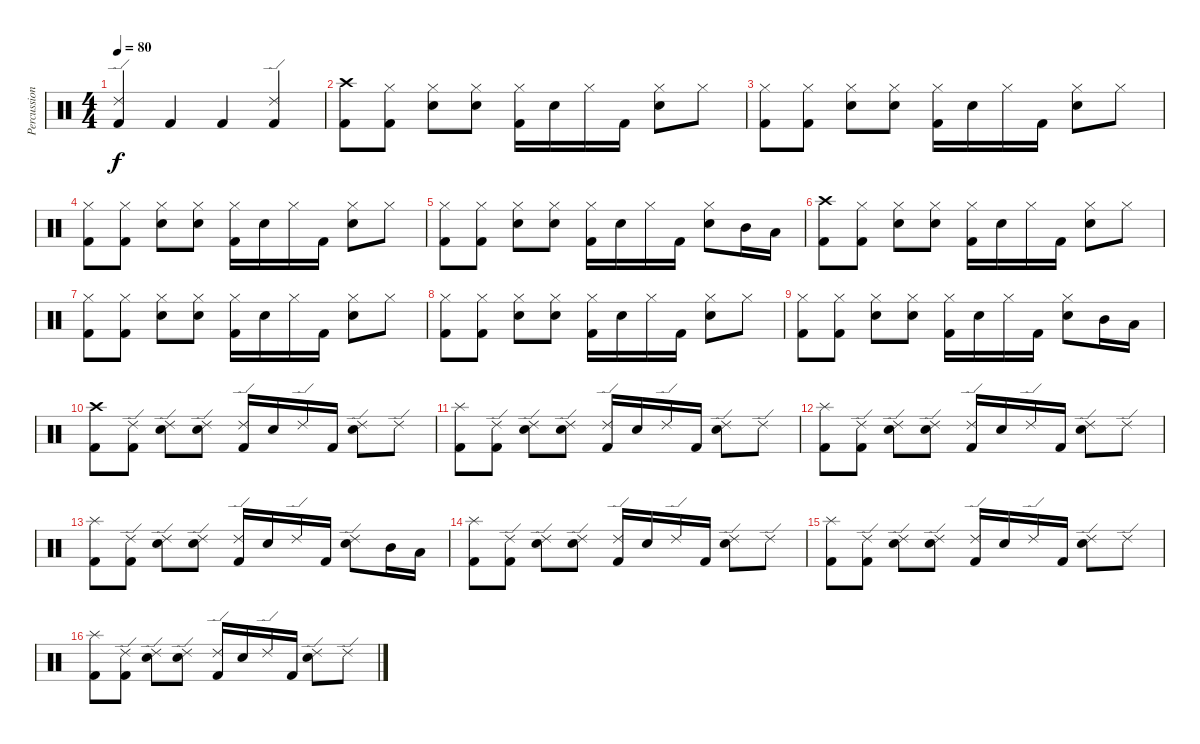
\track ("Percussion" "Percussion") {instrument percussion}
\staff {score}
\articulation defaults
\ts (4 4)
\tempo 80
\clef neutral
\ks c
("Kick (hit) 2" "Ride (edge) 2").4{dy f} "Kick (hit) 2".4 "Kick (hit) 2".4 ("Ride (edge) 2" "Kick (hit) 2").4 |
("Kick (hit) 2" "Crash high (hit)").8 ("Kick (hit) 2" "Hi-Hat (closed)").8 ("Electric Snare (hit)" "Hi-Hat (closed)").8 ("Electric Snare (hit)" "Hi-Hat (closed)").8 ("Kick (hit) 2" "Hi-Hat (closed)").16 "Electric Snare (hit)".16 "Hi-Hat (closed)".16 "Kick (hit) 2".16 ("Electric Snare (hit)" "Hi-Hat (closed)").8 "Hi-Hat (closed)".8 |
("Kick (hit) 2" "Hi-Hat (closed)").8 ("Kick (hit) 2" "Hi-Hat (closed)").8 ("Electric Snare (hit)" "Hi-Hat (closed)").8 ("Electric Snare (hit)" "Hi-Hat (closed)").8 ("Kick (hit) 2" "Hi-Hat (closed)").16 "Electric Snare (hit)".16 "Hi-Hat (closed)".16 "Kick (hit) 2".16 ("Electric Snare (hit)" "Hi-Hat (closed)").8 "Hi-Hat (closed)".8 |
("Kick (hit) 2" "Hi-Hat (closed)").8 ("Kick (hit) 2" "Hi-Hat (closed)").8 ("Electric Snare (hit)" "Hi-Hat (closed)").8 ("Electric Snare (hit)" "Hi-Hat (closed)").8 ("Kick (hit) 2" "Hi-Hat (closed)").16 "Electric Snare (hit)".16 "Hi-Hat (closed)".16 "Kick (hit) 2".16 ("Electric Snare (hit)" "Hi-Hat (closed)").8 "Hi-Hat (closed)".8 |
("Kick (hit) 2" "Hi-Hat (closed)").8 ("Kick (hit) 2" "Hi-Hat (closed)").8 ("Electric Snare (hit)" "Hi-Hat (closed)").8 ("Electric Snare (hit)" "Hi-Hat (closed)").8 ("Kick (hit) 2" "Hi-Hat (closed)").16 "Electric Snare (hit)".16 "Hi-Hat (closed)".16 "Kick (hit) 2".16 ("Electric Snare (hit)" "Hi-Hat (closed)").8 "Mid Tom (hit)".16 "Low Tom (hit)".16 |
("Kick (hit) 2" "Crash high (hit)").8 ("Kick (hit) 2" "Hi-Hat (closed)").8 ("Electric Snare (hit)" "Hi-Hat (closed)").8 ("Electric Snare (hit)" "Hi-Hat (closed)").8 ("Kick (hit) 2" "Hi-Hat (closed)").16 "Electric Snare (hit)".16 "Hi-Hat (closed)".16 "Kick (hit) 2".16 ("Electric Snare (hit)" "Hi-Hat (closed)").8 "Hi-Hat (closed)".8 |
("Kick (hit) 2" "Hi-Hat (closed)").8 ("Kick (hit) 2" "Hi-Hat (closed)").8 ("Electric Snare (hit)" "Hi-Hat (closed)").8 ("Electric Snare (hit)" "Hi-Hat (closed)").8 ("Kick (hit) 2" "Hi-Hat (closed)").16 "Electric Snare (hit)".16 "Hi-Hat (closed)".16 "Kick (hit) 2".16 ("Electric Snare (hit)" "Hi-Hat (closed)").8 "Hi-Hat (closed)".8 |
("Kick (hit) 2" "Hi-Hat (closed)").8 ("Kick (hit) 2" "Hi-Hat (closed)").8 ("Electric Snare (hit)" "Hi-Hat (closed)").8 ("Electric Snare (hit)" "Hi-Hat (closed)").8 ("Kick (hit) 2" "Hi-Hat (closed)").16 "Electric Snare (hit)".16 "Hi-Hat (closed)".16 "Kick (hit) 2".16 ("Electric Snare (hit)" "Hi-Hat (closed)").8 "Hi-Hat (closed)".8 |
("Kick (hit) 2" "Hi-Hat (closed)").8 ("Kick (hit) 2" "Hi-Hat (closed)").8 ("Electric Snare (hit)" "Hi-Hat (closed)").8 ("Electric Snare (hit)" "Hi-Hat (closed)").8 ("Kick (hit) 2" "Hi-Hat (closed)").16 "Electric Snare (hit)".16 "Hi-Hat (closed)".16 "Kick (hit) 2".16 ("Electric Snare (hit)" "Hi-Hat (closed)").8 "Mid Tom (hit)".16 "Low Tom (hit)".16 |
("Kick (hit) 2" "Crash high (hit)").8 ("Kick (hit) 2" "Ride (edge) 2").8 ("Electric Snare (hit)" "Ride (edge) 2").8 ("Electric Snare (hit)" "Ride (edge) 2").8 ("Kick (hit) 2" "Ride (edge) 2").16 "Electric Snare (hit)".16 "Ride (edge) 2".16 "Kick (hit) 2".16 ("Electric Snare (hit)" "Ride (edge) 2").8 "Ride (edge) 2".8 |
("Kick (hit) 2" "Splash (hit)").8 ("Kick (hit) 2" "Ride (edge) 2").8 ("Electric Snare (hit)" "Ride (edge) 2").8 ("Electric Snare (hit)" "Ride (edge) 2").8 ("Kick (hit) 2" "Ride (edge) 2").16 "Electric Snare (hit)".16 "Ride (edge) 2".16 "Kick (hit) 2".16 ("Electric Snare (hit)" "Ride (edge) 2").8 "Ride (edge) 2".8 |
("Kick (hit) 2" "Splash (hit)").8 ("Kick (hit) 2" "Ride (edge) 2").8 ("Electric Snare (hit)" "Ride (edge) 2").8 ("Electric Snare (hit)" "Ride (edge) 2").8 ("Kick (hit) 2" "Ride (edge) 2").16 "Electric Snare (hit)".16 "Ride (edge) 2".16 "Kick (hit) 2".16 ("Electric Snare (hit)" "Ride (edge) 2").8 "Ride (edge) 2".8 |
("Kick (hit) 2" "Splash (hit)").8 ("Kick (hit) 2" "Ride (edge) 2").8 ("Electric Snare (hit)" "Ride (edge) 2").8 ("Electric Snare (hit)" "Ride (edge) 2").8 ("Kick (hit) 2" "Ride (edge) 2").16 "Electric Snare (hit)".16 "Ride (edge) 2".16 "Kick (hit) 2".16 ("Electric Snare (hit)" "Ride (edge) 2").8 "Mid Tom (hit)".16 "Low Tom (hit)".16 |
("Kick (hit) 2" "Splash (hit)").8 ("Kick (hit) 2" "Ride (edge) 2").8 ("Electric Snare (hit)" "Ride (edge) 2").8 ("Electric Snare (hit)" "Ride (edge) 2").8 ("Kick (hit) 2" "Ride (edge) 2").16 "Electric Snare (hit)".16 "Ride (edge) 2".16 "Kick (hit) 2".16 ("Electric Snare (hit)" "Ride (edge) 2").8 "Ride (edge) 2".8 |
("Kick (hit) 2" "Splash (hit)").8 ("Kick (hit) 2" "Ride (edge) 2").8 ("Electric Snare (hit)" "Ride (edge) 2").8 ("Electric Snare (hit)" "Ride (edge) 2").8 ("Kick (hit) 2" "Ride (edge) 2").16 "Electric Snare (hit)".16 "Ride (edge) 2".16 "Kick (hit) 2".16 ("Electric Snare (hit)" "Ride (edge) 2").8 "Ride (edge) 2".8 |
("Kick (hit) 2" "Splash (hit)").8 ("Kick (hit) 2" "Ride (edge) 2").8 ("Electric Snare (hit)" "Ride (edge) 2").8 ("Electric Snare (hit)" "Ride (edge) 2").8 ("Kick (hit) 2" "Ride (edge) 2").16 "Electric Snare (hit)".16 "Ride (edge) 2".16 "Kick (hit) 2".16 ("Electric Snare (hit)" "Ride (edge) 2").8 "Ride (edge) 2".8
